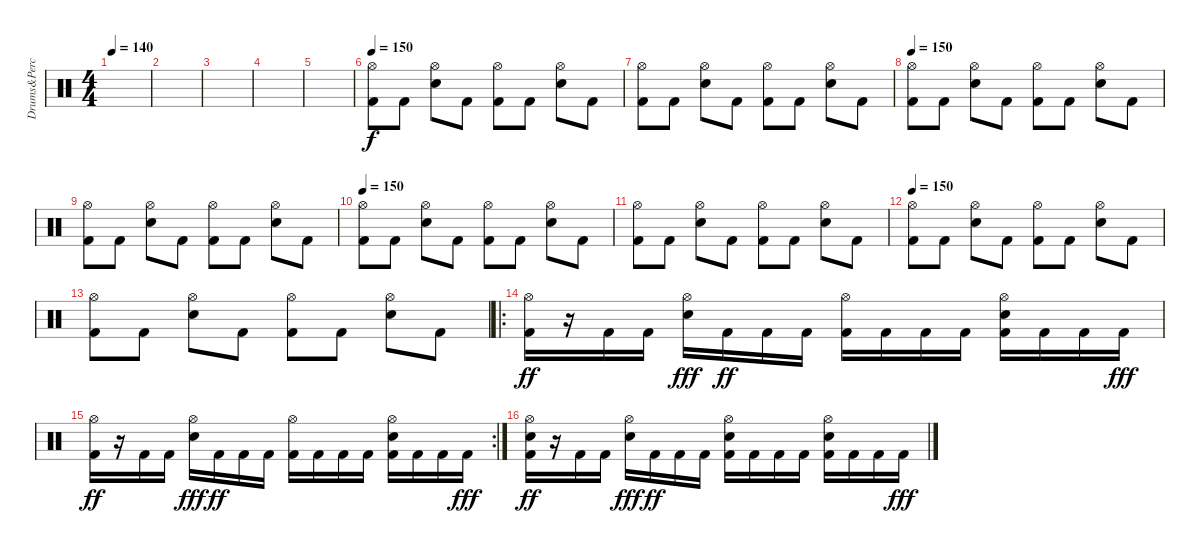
\track ("Drums&Percusion" "Drums&Perc") {instrument percussion}
\staff {score}
\articulation defaults
\ts (4 4)
\tempo 140
\clef neutral
\ks c
|
|
|
|
|
\tempo 150
("Hi-Hat (open)" "Kick (hit) 2").8 "Kick (hit) 2".8 ("Hi-Hat (open)" "Snare (hit) 2").8 "Kick (hit) 2".8 ("Hi-Hat (open)" "Kick (hit) 2").8 "Kick (hit) 2".8 ("Hi-Hat (open)" "Snare (hit) 2").8 "Kick (hit) 2".8 |
("Hi-Hat (open)" "Kick (hit) 2").8 "Kick (hit) 2".8 ("Hi-Hat (open)" "Snare (hit) 2").8 "Kick (hit) 2".8 ("Hi-Hat (open)" "Kick (hit) 2").8 "Kick (hit) 2".8 ("Hi-Hat (open)" "Snare (hit) 2").8 "Kick (hit) 2".8 |
\tempo 150
("Hi-Hat (open)" "Kick (hit) 2").8 "Kick (hit) 2".8 ("Hi-Hat (open)" "Snare (hit) 2").8 "Kick (hit) 2".8 ("Hi-Hat (open)" "Kick (hit) 2").8 "Kick (hit) 2".8 ("Hi-Hat (open)" "Snare (hit) 2").8 "Kick (hit) 2".8 |
("Hi-Hat (open)" "Kick (hit) 2").8 "Kick (hit) 2".8 ("Hi-Hat (open)" "Snare (hit) 2").8 "Kick (hit) 2".8 ("Hi-Hat (open)" "Kick (hit) 2").8 "Kick (hit) 2".8 ("Hi-Hat (open)" "Snare (hit) 2").8 "Kick (hit) 2".8 |
\tempo 150
("Hi-Hat (open)" "Kick (hit) 2").8 "Kick (hit) 2".8 ("Hi-Hat (open)" "Snare (hit) 2").8 "Kick (hit) 2".8 ("Hi-Hat (open)" "Kick (hit) 2").8 "Kick (hit) 2".8 ("Hi-Hat (open)" "Snare (hit) 2").8 "Kick (hit) 2".8 |
("Hi-Hat (open)" "Kick (hit) 2").8 "Kick (hit) 2".8 ("Hi-Hat (open)" "Snare (hit) 2").8 "Kick (hit) 2".8 ("Hi-Hat (open)" "Kick (hit) 2").8 "Kick (hit) 2".8 ("Hi-Hat (open)" "Snare (hit) 2").8 "Kick (hit) 2".8 |
\tempo 150
("Hi-Hat (open)" "Kick (hit) 2").8 "Kick (hit) 2".8 ("Hi-Hat (open)" "Snare (hit) 2").8 "Kick (hit) 2".8 ("Hi-Hat (open)" "Kick (hit) 2").8 "Kick (hit) 2".8 ("Hi-Hat (open)" "Snare (hit) 2").8 "Kick (hit) 2".8 |
("Hi-Hat (open)" "Kick (hit) 2").8 "Kick (hit) 2".8 ("Hi-Hat (open)" "Snare (hit) 2").8 "Kick (hit) 2".8 ("Hi-Hat (open)" "Kick (hit) 2").8 "Kick (hit) 2".8 ("Hi-Hat (open)" "Snare (hit) 2").8 "Kick (hit) 2".8 |
\ro
("Hi-Hat (open)" "Kick (hit) 2").16{dy ff} r.16 "Kick (hit) 2".16 "Kick (hit) 2".16 ("Hi-Hat (open)" "Snare (hit) 2").16{dy fff} "Kick (hit) 2".16{dy ff} "Kick (hit) 2".16 "Kick (hit) 2".16 ("Hi-Hat (open)" "Kick (hit) 2").16 "Kick (hit) 2".16 "Kick (hit) 2".16 "Kick (hit) 2".16 ("Hi-Hat (open)" "Snare (hit) 2" "Kick (hit) 2").16 "Kick (hit) 2".16 "Kick (hit) 2".16 "Kick (hit) 2".16{dy fff} |
\rc 2
("Hi-Hat (open)" "Kick (hit) 2").16{dy ff} r.16 "Kick (hit) 2".16 "Kick (hit) 2".16 ("Hi-Hat (open)" "Snare (hit) 2").16{dy fff} "Kick (hit) 2".16{dy ff} "Kick (hit) 2".16 "Kick (hit) 2".16 ("Hi-Hat (open)" "Kick (hit) 2").16 "Kick (hit) 2".16 "Kick (hit) 2".16 "Kick (hit) 2".16 ("Hi-Hat (open)" "Snare (hit) 2" "Kick (hit) 2").16 "Kick (hit) 2".16 "Kick (hit) 2".16 "Kick (hit) 2".16{dy fff} |
("Hi-Hat (open)" "Snare (hit) 2" "Kick (hit) 2").16{dy ff} r.16 "Kick (hit) 2".16 "Kick (hit) 2".16 ("Hi-Hat (open)" "Snare (hit) 2").16{dy fff} "Kick (hit) 2".16{dy ff} "Kick (hit) 2".16 "Kick (hit) 2".16 ("Hi-Hat (open)" "Snare (hit) 2" "Kick (hit) 2").16 "Kick (hit) 2".16 "Kick (hit) 2".16 "Kick (hit) 2".16 ("Hi-Hat (open)" "Snare (hit) 2" "Kick (hit) 2").16 "Kick (hit) 2".16 "Kick (hit) 2".16 "Kick (hit) 2".16{dy fff}
